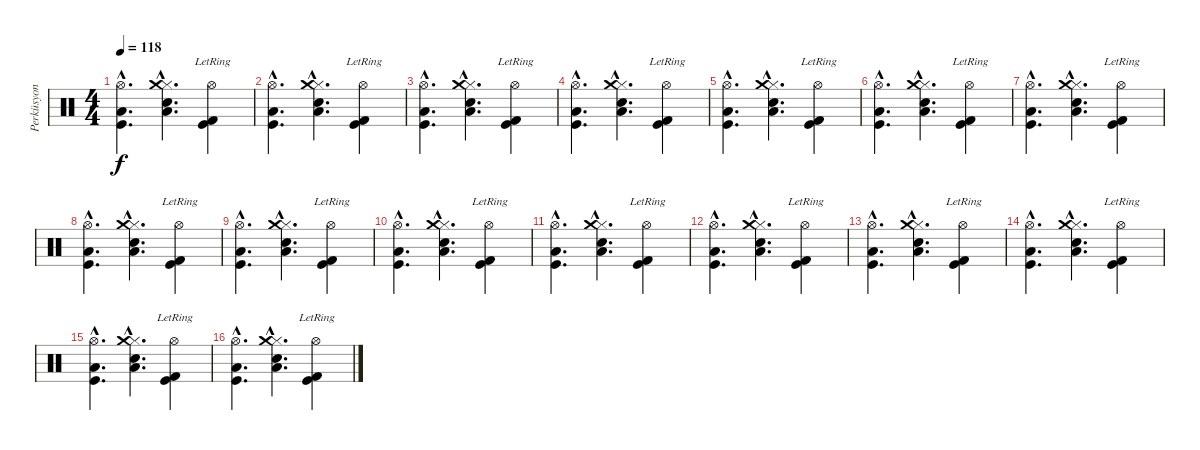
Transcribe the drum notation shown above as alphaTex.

\track ("Perküsyon" "Perküsyon") {instrument percussion}
\staff {score}
\articulation defaults
\ts (4 4)
\tempo 118
\clef neutral
\ks c
("Hi-Hat (open)"{hac} "Low Tom (hit)"{hac} "Kick (hit)"{hac}).4{d dy f} ("Low Floor Tom (hit)"{hac} "Hi-Hat (closed)"{hac} "Snare (hit)"{hac} "Crash medium (hit)"{hac}).4{d} ("Hi-Hat (open)"{lr} "Kick (hit) 2" "Kick (hit)").4 |
("Hi-Hat (open)"{hac} "Low Tom (hit)"{hac} "Kick (hit)"{hac}).4{d} ("Low Floor Tom (hit)"{hac} "Hi-Hat (closed)"{hac} "Snare (hit)"{hac} "Crash medium (hit)"{hac}).4{d} ("Hi-Hat (open)"{lr} "Kick (hit) 2" "Kick (hit)").4 |
("Hi-Hat (open)"{hac} "Low Tom (hit)"{hac} "Kick (hit)"{hac}).4{d} ("Low Floor Tom (hit)"{hac} "Hi-Hat (closed)"{hac} "Snare (hit)"{hac} "Crash medium (hit)"{hac}).4{d} ("Hi-Hat (open)"{lr} "Kick (hit) 2" "Kick (hit)").4 |
("Hi-Hat (open)"{hac} "Low Tom (hit)"{hac} "Kick (hit)"{hac}).4{d} ("Low Floor Tom (hit)"{hac} "Hi-Hat (closed)"{hac} "Snare (hit)"{hac} "Crash medium (hit)"{hac}).4{d} ("Hi-Hat (open)"{lr} "Kick (hit) 2" "Kick (hit)").4 |
("Hi-Hat (open)"{hac} "Low Tom (hit)"{hac} "Kick (hit)"{hac}).4{d} ("Low Floor Tom (hit)"{hac} "Hi-Hat (closed)"{hac} "Snare (hit)"{hac} "Crash medium (hit)"{hac}).4{d} ("Hi-Hat (open)"{lr} "Kick (hit) 2" "Kick (hit)").4 |
("Hi-Hat (open)"{hac} "Low Tom (hit)"{hac} "Kick (hit)"{hac}).4{d} ("Low Floor Tom (hit)"{hac} "Hi-Hat (closed)"{hac} "Snare (hit)"{hac} "Crash medium (hit)"{hac}).4{d} ("Hi-Hat (open)"{lr} "Kick (hit) 2" "Kick (hit)").4 |
("Hi-Hat (open)"{hac} "Low Tom (hit)"{hac} "Kick (hit)"{hac}).4{d} ("Low Floor Tom (hit)"{hac} "Hi-Hat (closed)"{hac} "Snare (hit)"{hac} "Crash medium (hit)"{hac}).4{d} ("Hi-Hat (open)"{lr} "Kick (hit) 2" "Kick (hit)").4 |
("Hi-Hat (open)"{hac} "Low Tom (hit)"{hac} "Kick (hit)"{hac}).4{d} ("Low Floor Tom (hit)"{hac} "Hi-Hat (closed)"{hac} "Snare (hit)"{hac} "Crash medium (hit)"{hac}).4{d} ("Hi-Hat (open)"{lr} "Kick (hit) 2" "Kick (hit)").4 |
("Hi-Hat (open)"{hac} "Low Tom (hit)"{hac} "Kick (hit)"{hac}).4{d} ("Low Floor Tom (hit)"{hac} "Hi-Hat (closed)"{hac} "Snare (hit)"{hac} "Crash medium (hit)"{hac}).4{d} ("Hi-Hat (open)"{lr} "Kick (hit) 2" "Kick (hit)").4 |
("Hi-Hat (open)"{hac} "Low Tom (hit)"{hac} "Kick (hit)"{hac}).4{d} ("Low Floor Tom (hit)"{hac} "Hi-Hat (closed)"{hac} "Snare (hit)"{hac} "Crash medium (hit)"{hac}).4{d} ("Hi-Hat (open)"{lr} "Kick (hit) 2" "Kick (hit)").4 |
("Hi-Hat (open)"{hac} "Low Tom (hit)"{hac} "Kick (hit)"{hac}).4{d} ("Low Floor Tom (hit)"{hac} "Hi-Hat (closed)"{hac} "Snare (hit)"{hac} "Crash medium (hit)"{hac}).4{d} ("Hi-Hat (open)"{lr} "Kick (hit) 2" "Kick (hit)").4 |
("Hi-Hat (open)"{hac} "Low Tom (hit)"{hac} "Kick (hit)"{hac}).4{d} ("Low Floor Tom (hit)"{hac} "Hi-Hat (closed)"{hac} "Snare (hit)"{hac} "Crash medium (hit)"{hac}).4{d} ("Hi-Hat (open)"{lr} "Kick (hit) 2" "Kick (hit)").4 |
("Hi-Hat (open)"{hac} "Low Tom (hit)"{hac} "Kick (hit)"{hac}).4{d} ("Low Floor Tom (hit)"{hac} "Hi-Hat (closed)"{hac} "Snare (hit)"{hac} "Crash medium (hit)"{hac}).4{d} ("Hi-Hat (open)"{lr} "Kick (hit) 2" "Kick (hit)").4 |
("Hi-Hat (open)"{hac} "Low Tom (hit)"{hac} "Kick (hit)"{hac}).4{d} ("Low Floor Tom (hit)"{hac} "Hi-Hat (closed)"{hac} "Snare (hit)"{hac} "Crash medium (hit)"{hac}).4{d} ("Hi-Hat (open)"{lr} "Kick (hit) 2" "Kick (hit)").4 |
("Hi-Hat (open)"{hac} "Low Tom (hit)"{hac} "Kick (hit)"{hac}).4{d} ("Low Floor Tom (hit)"{hac} "Hi-Hat (closed)"{hac} "Snare (hit)"{hac} "Crash medium (hit)"{hac}).4{d} ("Hi-Hat (open)"{lr} "Kick (hit) 2" "Kick (hit)").4 |
("Hi-Hat (open)"{hac} "Low Tom (hit)"{hac} "Kick (hit)"{hac}).4{d} ("Low Floor Tom (hit)"{hac} "Hi-Hat (closed)"{hac} "Snare (hit)"{hac} "Crash medium (hit)"{hac}).4{d} ("Hi-Hat (open)"{lr} "Kick (hit) 2" "Kick (hit)").4
